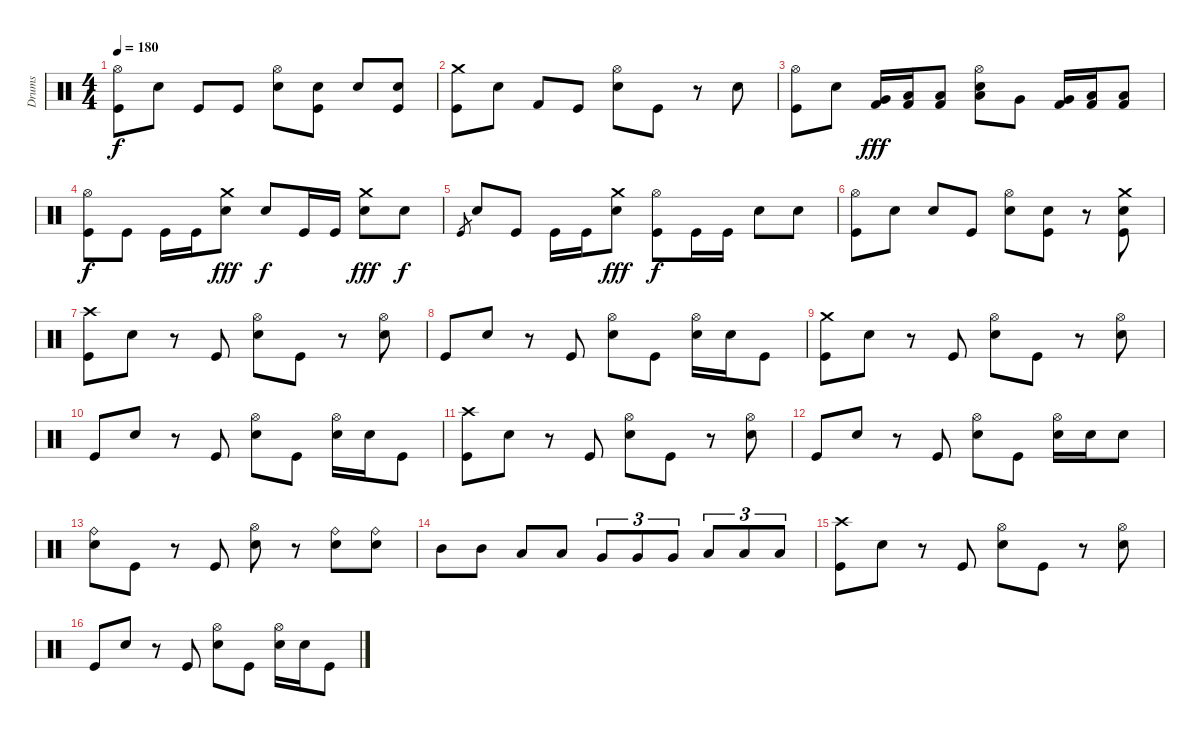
\track ("Drums" "Drums") {instrument percussion}
\staff {score}
\articulation defaults
\ts (4 4)
\tempo 180
\clef neutral
\ks c
("Hi-Hat (open)" "Kick (hit)").8{dy f} "Snare (hit) 2".8 "Kick (hit)".8 "Kick (hit)".8 ("Hi-Hat (open)" "Snare (hit) 2").8 ("Electric Snare (hit)" "Kick (hit)").8 "Electric Snare (hit)".8 ("Electric Snare (hit)" "Kick (hit)").8 |
("Crash medium (hit)" "Kick (hit)").8 "Snare (hit) 2".8 "Kick (hit) 2".8 "Kick (hit)".8 ("Hi-Hat (open)" "Snare (hit) 2").8 "Kick (hit)".8 r.8 "Snare (hit) 2".8 |
("Hi-Hat (open)" "Kick (hit)").8 "Snare (hit) 2".8 ("Very Low Tom (hit)" "Kick (hit) 2").16{dy fff} ("Low Floor Tom (hit)" "Kick (hit) 2").16 ("Low Floor Tom (hit)" "Kick (hit) 2").8 ("Hi-Hat (open)" "Low Tom (hit)" "Snare (hit) 2").8 "Very Low Tom (hit)".8 ("Very Low Tom (hit)" "Kick (hit) 2").16 ("Low Floor Tom (hit)" "Kick (hit) 2").16 ("Low Floor Tom (hit)" "Kick (hit) 2").8 |
("Hi-Hat (open)" "Kick (hit)").8{dy f} "Kick (hit)".8 "Kick (hit)".16 "Kick (hit)".16 ("Crash medium (hit)" "Snare (hit) 2").8{dy fff} "Electric Snare (hit)".8{dy f} "Kick (hit)".16 "Kick (hit)".16 ("Crash medium (hit)" "Snare (hit) 2").8{dy fff} "Electric Snare (hit)".8{dy f} |
"Kick (hit)".8{gr} "Electric Snare (hit)".8 "Kick (hit)".8 "Kick (hit)".16 "Kick (hit)".16 ("Crash medium (hit)" "Snare (hit) 2").8{dy fff} ("Hi-Hat (open)" "Kick (hit)").8{dy f} "Kick (hit)".16 "Kick (hit)".16 "Electric Snare (hit)".8 "Electric Snare (hit)".8 |
("Hi-Hat (open)" "Kick (hit)").8 "Snare (hit) 2".8 "Electric Snare (hit)".8 "Kick (hit)".8 ("Hi-Hat (open)" "Snare (hit) 2").8 ("Electric Snare (hit)" "Kick (hit)").8 r.8 ("Crash medium (hit)" "Electric Snare (hit)" "Kick (hit)").8 |
("Crash high (hit)" "Kick (hit)").8 "Electric Snare (hit)".8 r.8 "Kick (hit)".8 ("Hi-Hat (open)" "Electric Snare (hit)").8 "Kick (hit)".8 r.8 ("Hi-Hat (open)" "Electric Snare (hit)").8 |
"Kick (hit)".8 "Electric Snare (hit)".8 r.8 "Kick (hit)".8 ("Hi-Hat (open)" "Electric Snare (hit)").8 "Kick (hit)".8 ("Hi-Hat (open)" "Electric Snare (hit)").16 "Electric Snare (hit)".16 "Kick (hit)".8 |
("Crash medium (hit)" "Kick (hit)").8 "Electric Snare (hit)".8 r.8 "Kick (hit)".8 ("Hi-Hat (open)" "Electric Snare (hit)").8 "Kick (hit)".8 r.8 ("Hi-Hat (open)" "Electric Snare (hit)").8 |
"Kick (hit)".8 "Electric Snare (hit)".8 r.8 "Kick (hit)".8 ("Hi-Hat (open)" "Electric Snare (hit)").8 "Kick (hit)".8 ("Hi-Hat (open)" "Electric Snare (hit)").16 "Electric Snare (hit)".16 "Kick (hit)".8 |
("Crash high (hit)" "Kick (hit)").8 "Electric Snare (hit)".8 r.8 "Kick (hit)".8 ("Hi-Hat (open)" "Electric Snare (hit)").8 "Kick (hit)".8 r.8 ("Hi-Hat (open)" "Electric Snare (hit)").8 |
"Kick (hit)".8 "Electric Snare (hit)".8 r.8 "Kick (hit)".8 ("Hi-Hat (open)" "Electric Snare (hit)").8 "Kick (hit)".8 ("Hi-Hat (open)" "Electric Snare (hit)").16 "Electric Snare (hit)".16 "Electric Snare (hit)".8 |
("Ride (bell)" "Snare (hit) 2").8 "Kick (hit)".8 r.8 "Kick (hit)".8 ("Hi-Hat (open)" "Electric Snare (hit)").8 r.8 ("Ride (bell)" "Snare (hit) 2").8 ("Ride (bell)" "Snare (hit) 2").8 |
"Mid Tom (hit)".8 "Mid Tom (hit)".8 "Low Tom (hit)".8 "Low Tom (hit)".8 "Very Low Tom (hit)".8{tu (3 2)} "Very Low Tom (hit)".8{tu (3 2)} "Very Low Tom (hit)".8{tu (3 2)} "Low Floor Tom (hit)".8{tu (3 2)} "Low Floor Tom (hit)".8{tu (3 2)} "Low Floor Tom (hit)".8{tu (3 2)} |
("Crash high (hit)" "Kick (hit)").8 "Electric Snare (hit)".8 r.8 "Kick (hit)".8 ("Hi-Hat (open)" "Electric Snare (hit)").8 "Kick (hit)".8 r.8 ("Hi-Hat (open)" "Electric Snare (hit)").8 |
"Kick (hit)".8 "Electric Snare (hit)".8 r.8 "Kick (hit)".8 ("Hi-Hat (open)" "Electric Snare (hit)").8 "Kick (hit)".8 ("Hi-Hat (open)" "Electric Snare (hit)").16 "Electric Snare (hit)".16 "Kick (hit)".8
